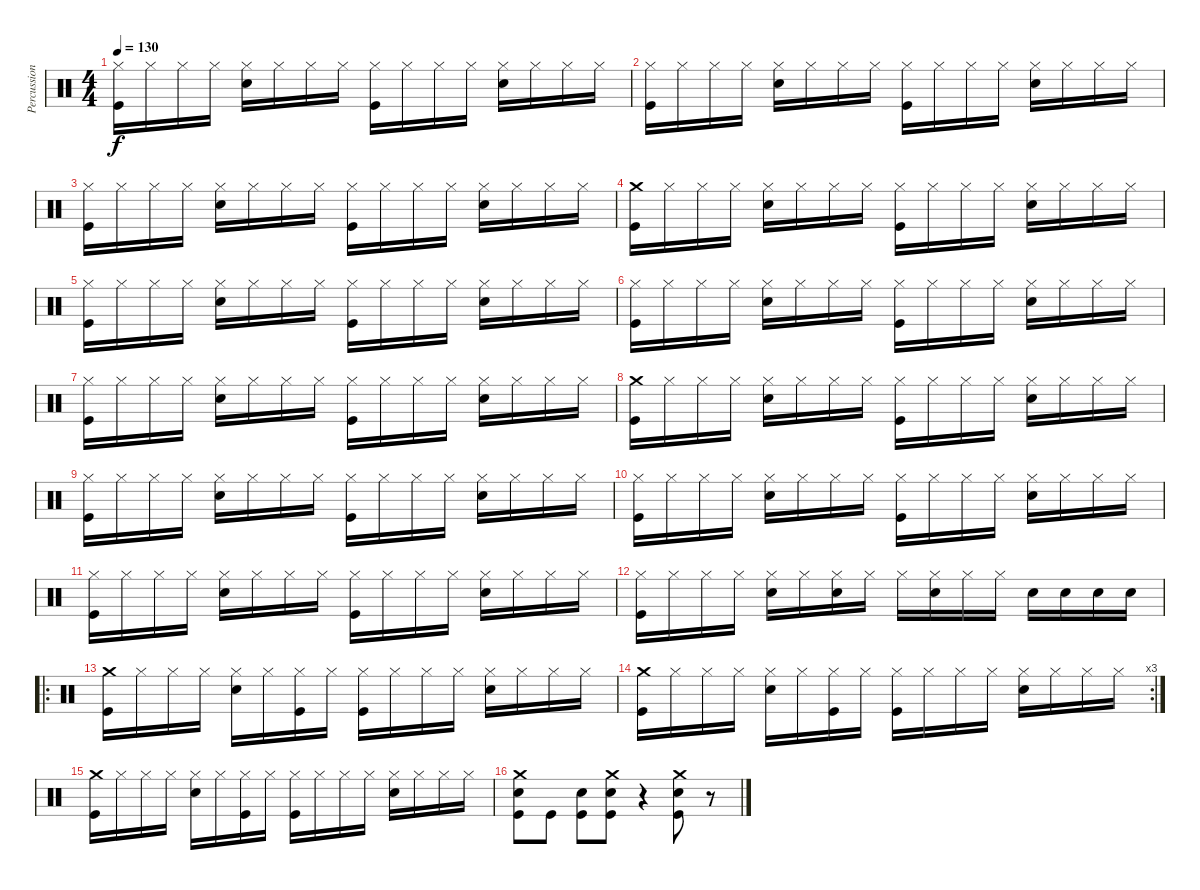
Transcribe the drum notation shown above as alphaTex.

\track ("Percussion" "Percussion") {instrument percussion}
\staff {score}
\articulation defaults
\ts (4 4)
\tempo 130
\clef neutral
\ks c
("Hi-Hat (closed)" "Kick (hit)").16{dy f} "Hi-Hat (closed)".16 "Hi-Hat (closed)".16 "Hi-Hat (closed)".16 ("Hi-Hat (closed)" "Snare (hit) 2").16 "Hi-Hat (closed)".16 "Hi-Hat (closed)".16 "Hi-Hat (closed)".16 ("Hi-Hat (closed)" "Kick (hit)").16 "Hi-Hat (closed)".16 "Hi-Hat (closed)".16 "Hi-Hat (closed)".16 ("Hi-Hat (closed)" "Snare (hit) 2").16 "Hi-Hat (closed)".16 "Hi-Hat (closed)".16 "Hi-Hat (closed)".16 |
("Hi-Hat (closed)" "Kick (hit)").16 "Hi-Hat (closed)".16 "Hi-Hat (closed)".16 "Hi-Hat (closed)".16 ("Hi-Hat (closed)" "Snare (hit) 2").16 "Hi-Hat (closed)".16 "Hi-Hat (closed)".16 "Hi-Hat (closed)".16 ("Hi-Hat (closed)" "Kick (hit)").16 "Hi-Hat (closed)".16 "Hi-Hat (closed)".16 "Hi-Hat (closed)".16 ("Hi-Hat (closed)" "Snare (hit) 2").16 "Hi-Hat (closed)".16 "Hi-Hat (closed)".16 "Hi-Hat (closed)".16 |
("Hi-Hat (closed)" "Kick (hit)").16 "Hi-Hat (closed)".16 "Hi-Hat (closed)".16 "Hi-Hat (closed)".16 ("Hi-Hat (closed)" "Snare (hit) 2").16 "Hi-Hat (closed)".16 "Hi-Hat (closed)".16 "Hi-Hat (closed)".16 ("Hi-Hat (closed)" "Kick (hit)").16 "Hi-Hat (closed)".16 "Hi-Hat (closed)".16 "Hi-Hat (closed)".16 ("Hi-Hat (closed)" "Snare (hit) 2").16 "Hi-Hat (closed)".16 "Hi-Hat (closed)".16 "Hi-Hat (closed)".16 |
("Crash medium (hit)" "Kick (hit)").16 "Hi-Hat (closed)".16 "Hi-Hat (closed)".16 "Hi-Hat (closed)".16 ("Hi-Hat (closed)" "Snare (hit) 2").16 "Hi-Hat (closed)".16 "Hi-Hat (closed)".16 "Hi-Hat (closed)".16 ("Hi-Hat (closed)" "Kick (hit)").16 "Hi-Hat (closed)".16 "Hi-Hat (closed)".16 "Hi-Hat (closed)".16 ("Hi-Hat (closed)" "Snare (hit) 2").16 "Hi-Hat (closed)".16 "Hi-Hat (closed)".16 "Hi-Hat (closed)".16 |
("Hi-Hat (closed)" "Kick (hit)").16 "Hi-Hat (closed)".16 "Hi-Hat (closed)".16 "Hi-Hat (closed)".16 ("Hi-Hat (closed)" "Snare (hit) 2").16 "Hi-Hat (closed)".16 "Hi-Hat (closed)".16 "Hi-Hat (closed)".16 ("Hi-Hat (closed)" "Kick (hit)").16 "Hi-Hat (closed)".16 "Hi-Hat (closed)".16 "Hi-Hat (closed)".16 ("Hi-Hat (closed)" "Snare (hit) 2").16 "Hi-Hat (closed)".16 "Hi-Hat (closed)".16 "Hi-Hat (closed)".16 |
("Hi-Hat (closed)" "Kick (hit)").16 "Hi-Hat (closed)".16 "Hi-Hat (closed)".16 "Hi-Hat (closed)".16 ("Hi-Hat (closed)" "Snare (hit) 2").16 "Hi-Hat (closed)".16 "Hi-Hat (closed)".16 "Hi-Hat (closed)".16 ("Hi-Hat (closed)" "Kick (hit)").16 "Hi-Hat (closed)".16 "Hi-Hat (closed)".16 "Hi-Hat (closed)".16 ("Hi-Hat (closed)" "Snare (hit) 2").16 "Hi-Hat (closed)".16 "Hi-Hat (closed)".16 "Hi-Hat (closed)".16 |
("Hi-Hat (closed)" "Kick (hit)").16 "Hi-Hat (closed)".16 "Hi-Hat (closed)".16 "Hi-Hat (closed)".16 ("Hi-Hat (closed)" "Snare (hit) 2").16 "Hi-Hat (closed)".16 "Hi-Hat (closed)".16 "Hi-Hat (closed)".16 ("Hi-Hat (closed)" "Kick (hit)").16 "Hi-Hat (closed)".16 "Hi-Hat (closed)".16 "Hi-Hat (closed)".16 ("Hi-Hat (closed)" "Snare (hit) 2").16 "Hi-Hat (closed)".16 "Hi-Hat (closed)".16 "Hi-Hat (closed)".16 |
("Crash medium (hit)" "Kick (hit)").16 "Hi-Hat (closed)".16 "Hi-Hat (closed)".16 "Hi-Hat (closed)".16 ("Hi-Hat (closed)" "Snare (hit) 2").16 "Hi-Hat (closed)".16 "Hi-Hat (closed)".16 "Hi-Hat (closed)".16 ("Hi-Hat (closed)" "Kick (hit)").16 "Hi-Hat (closed)".16 "Hi-Hat (closed)".16 "Hi-Hat (closed)".16 ("Hi-Hat (closed)" "Snare (hit) 2").16 "Hi-Hat (closed)".16 "Hi-Hat (closed)".16 "Hi-Hat (closed)".16 |
("Hi-Hat (closed)" "Kick (hit)").16 "Hi-Hat (closed)".16 "Hi-Hat (closed)".16 "Hi-Hat (closed)".16 ("Hi-Hat (closed)" "Snare (hit) 2").16 "Hi-Hat (closed)".16 "Hi-Hat (closed)".16 "Hi-Hat (closed)".16 ("Hi-Hat (closed)" "Kick (hit)").16 "Hi-Hat (closed)".16 "Hi-Hat (closed)".16 "Hi-Hat (closed)".16 ("Hi-Hat (closed)" "Snare (hit) 2").16 "Hi-Hat (closed)".16 "Hi-Hat (closed)".16 "Hi-Hat (closed)".16 |
("Hi-Hat (closed)" "Kick (hit)").16 "Hi-Hat (closed)".16 "Hi-Hat (closed)".16 "Hi-Hat (closed)".16 ("Hi-Hat (closed)" "Snare (hit) 2").16 "Hi-Hat (closed)".16 "Hi-Hat (closed)".16 "Hi-Hat (closed)".16 ("Hi-Hat (closed)" "Kick (hit)").16 "Hi-Hat (closed)".16 "Hi-Hat (closed)".16 "Hi-Hat (closed)".16 ("Hi-Hat (closed)" "Snare (hit) 2").16 "Hi-Hat (closed)".16 "Hi-Hat (closed)".16 "Hi-Hat (closed)".16 |
("Hi-Hat (closed)" "Kick (hit)").16 "Hi-Hat (closed)".16 "Hi-Hat (closed)".16 "Hi-Hat (closed)".16 ("Hi-Hat (closed)" "Snare (hit) 2").16 "Hi-Hat (closed)".16 "Hi-Hat (closed)".16 "Hi-Hat (closed)".16 ("Hi-Hat (closed)" "Kick (hit)").16 "Hi-Hat (closed)".16 "Hi-Hat (closed)".16 "Hi-Hat (closed)".16 ("Hi-Hat (closed)" "Snare (hit) 2").16 "Hi-Hat (closed)".16 "Hi-Hat (closed)".16 "Hi-Hat (closed)".16 |
("Hi-Hat (closed)" "Kick (hit)").16 "Hi-Hat (closed)".16 "Hi-Hat (closed)".16 "Hi-Hat (closed)".16 ("Hi-Hat (closed)" "Snare (hit) 2").16 "Hi-Hat (closed)".16 ("Hi-Hat (closed)" "Snare (hit) 2").16 "Hi-Hat (closed)".16 "Hi-Hat (closed)".16 ("Hi-Hat (closed)" "Snare (hit) 2").16 "Hi-Hat (closed)".16 "Hi-Hat (closed)".16 "Snare (hit) 2".16 "Snare (hit) 2".16 "Snare (hit) 2".16 "Snare (hit) 2".16 |
\ro
("Crash medium (hit)" "Kick (hit)").16 "Hi-Hat (closed)".16 "Hi-Hat (closed)".16 "Hi-Hat (closed)".16 ("Hi-Hat (closed)" "Snare (hit) 2").16 "Hi-Hat (closed)".16 ("Hi-Hat (closed)" "Kick (hit)").16 "Hi-Hat (closed)".16 ("Hi-Hat (closed)" "Kick (hit)").16 "Hi-Hat (closed)".16 "Hi-Hat (closed)".16 "Hi-Hat (closed)".16 ("Hi-Hat (closed)" "Snare (hit) 2").16 "Hi-Hat (closed)".16 "Hi-Hat (closed)".16 "Hi-Hat (closed)".16 |
\rc 3
("Crash medium (hit)" "Kick (hit)").16 "Hi-Hat (closed)".16 "Hi-Hat (closed)".16 "Hi-Hat (closed)".16 ("Hi-Hat (closed)" "Snare (hit) 2").16 "Hi-Hat (closed)".16 ("Hi-Hat (closed)" "Kick (hit)").16 "Hi-Hat (closed)".16 ("Hi-Hat (closed)" "Kick (hit)").16 "Hi-Hat (closed)".16 "Hi-Hat (closed)".16 "Hi-Hat (closed)".16 ("Hi-Hat (closed)" "Snare (hit) 2").16 "Hi-Hat (closed)".16 "Hi-Hat (closed)".16 "Hi-Hat (closed)".16 |
("Crash medium (hit)" "Kick (hit)").16 "Hi-Hat (closed)".16 "Hi-Hat (closed)".16 "Hi-Hat (closed)".16 ("Hi-Hat (closed)" "Snare (hit) 2").16 "Hi-Hat (closed)".16 ("Hi-Hat (closed)" "Kick (hit)").16 "Hi-Hat (closed)".16 ("Hi-Hat (closed)" "Kick (hit)").16 "Hi-Hat (closed)".16 "Hi-Hat (closed)".16 "Hi-Hat (closed)".16 ("Hi-Hat (closed)" "Snare (hit) 2").16 "Hi-Hat (closed)".16 "Hi-Hat (closed)".16 "Hi-Hat (closed)".16 |
("Crash medium (hit)" "Snare (hit) 2" "Kick (hit)").8 "Kick (hit)".8 ("Snare (hit) 2" "Kick (hit)").8 ("Crash medium (hit)" "Kick (hit)" "Snare (hit) 2").8 r.4 ("Crash medium (hit)" "Kick (hit)" "Snare (hit) 2").8 r.8
